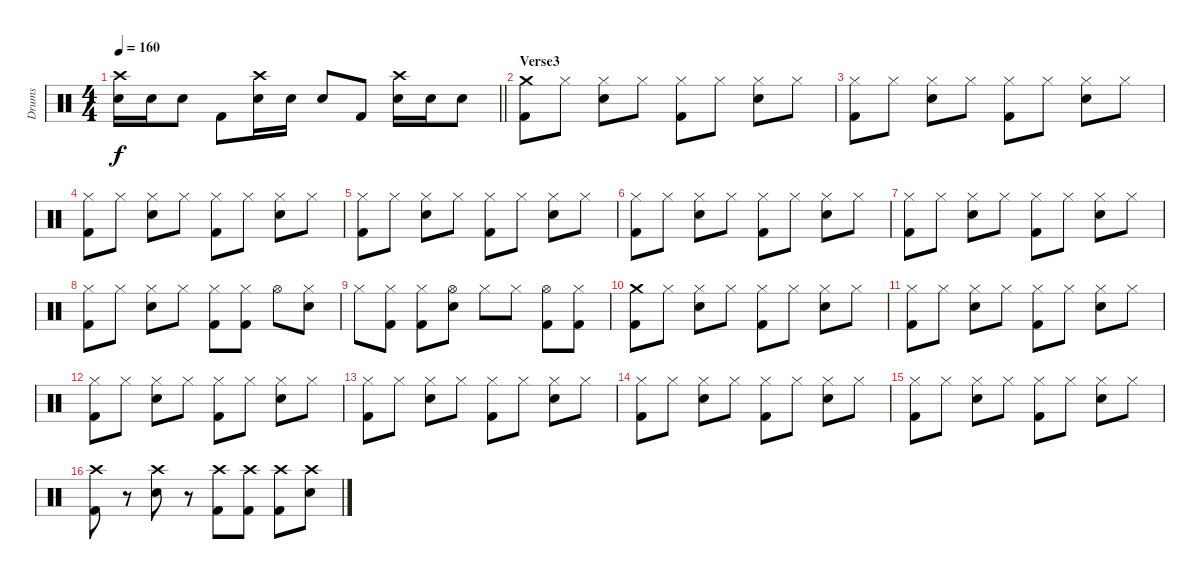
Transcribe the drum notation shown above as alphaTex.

\track ("Drums" "Drums") {instrument percussion}
\staff {score}
\articulation defaults
\ts (4 4)
\tempo 160
\clef neutral
\barLineRight lightlight
\ks c
("Crash high (hit)" "Electric Snare (hit)").16{dy f} "Electric Snare (hit)".16 "Electric Snare (hit)".8 "Kick (hit) 2".8 ("Crash high (hit)" "Electric Snare (hit)").16 "Electric Snare (hit)".16 "Electric Snare (hit)".8 "Kick (hit) 2".8 ("Crash high (hit)" "Electric Snare (hit)").16 "Electric Snare (hit)".16 "Electric Snare (hit)".8 |
\section ("" "Verse3")
("Crash medium (hit)" "Kick (hit) 2").8 "Hi-Hat (closed)".8 ("Hi-Hat (closed)" "Electric Snare (hit)").8 "Hi-Hat (closed)".8 ("Hi-Hat (closed)" "Kick (hit) 2").8 "Hi-Hat (closed)".8 ("Hi-Hat (closed)" "Electric Snare (hit)").8 "Hi-Hat (closed)".8 |
("Hi-Hat (closed)" "Kick (hit) 2").8 "Hi-Hat (closed)".8 ("Hi-Hat (closed)" "Electric Snare (hit)").8 "Hi-Hat (closed)".8 ("Hi-Hat (closed)" "Kick (hit) 2").8 "Hi-Hat (closed)".8 ("Hi-Hat (closed)" "Electric Snare (hit)").8 "Hi-Hat (closed)".8 |
("Hi-Hat (closed)" "Kick (hit) 2").8 "Hi-Hat (closed)".8 ("Hi-Hat (closed)" "Electric Snare (hit)").8 "Hi-Hat (closed)".8 ("Hi-Hat (closed)" "Kick (hit) 2").8 "Hi-Hat (closed)".8 ("Hi-Hat (closed)" "Electric Snare (hit)").8 "Hi-Hat (closed)".8 |
("Hi-Hat (closed)" "Kick (hit) 2").8 "Hi-Hat (closed)".8 ("Hi-Hat (closed)" "Electric Snare (hit)").8 "Hi-Hat (closed)".8 ("Hi-Hat (closed)" "Kick (hit) 2").8 "Hi-Hat (closed)".8 ("Hi-Hat (closed)" "Electric Snare (hit)").8 "Hi-Hat (closed)".8 |
("Hi-Hat (closed)" "Kick (hit) 2").8 "Hi-Hat (closed)".8 ("Hi-Hat (closed)" "Electric Snare (hit)").8 "Hi-Hat (closed)".8 ("Hi-Hat (closed)" "Kick (hit) 2").8 "Hi-Hat (closed)".8 ("Hi-Hat (closed)" "Electric Snare (hit)").8 "Hi-Hat (closed)".8 |
("Hi-Hat (closed)" "Kick (hit) 2").8 "Hi-Hat (closed)".8 ("Hi-Hat (closed)" "Electric Snare (hit)").8 "Hi-Hat (closed)".8 ("Hi-Hat (closed)" "Kick (hit) 2").8 "Hi-Hat (closed)".8 ("Hi-Hat (closed)" "Electric Snare (hit)").8 "Hi-Hat (closed)".8 |
("Hi-Hat (closed)" "Kick (hit) 2").8 "Hi-Hat (closed)".8 ("Hi-Hat (closed)" "Electric Snare (hit)").8 "Hi-Hat (closed)".8 ("Hi-Hat (closed)" "Kick (hit) 2").8 ("Hi-Hat (closed)" "Kick (hit) 2").8 "Hi-Hat (open)".8 ("Hi-Hat (closed)" "Electric Snare (hit)").8 |
"Hi-Hat (closed)".8 ("Hi-Hat (closed)" "Kick (hit) 2").8 ("Hi-Hat (closed)" "Kick (hit) 2").8 ("Hi-Hat (open)" "Electric Snare (hit)").8 "Hi-Hat (closed)".8 "Hi-Hat (closed)".8 ("Hi-Hat (open)" "Kick (hit) 2").8 ("Hi-Hat (closed)" "Kick (hit) 2").8 |
("Crash medium (hit)" "Kick (hit) 2").8 "Hi-Hat (closed)".8 ("Hi-Hat (closed)" "Electric Snare (hit)").8 "Hi-Hat (closed)".8 ("Hi-Hat (closed)" "Kick (hit) 2").8 "Hi-Hat (closed)".8 ("Hi-Hat (closed)" "Electric Snare (hit)").8 "Hi-Hat (closed)".8 |
("Hi-Hat (closed)" "Kick (hit) 2").8 "Hi-Hat (closed)".8 ("Hi-Hat (closed)" "Electric Snare (hit)").8 "Hi-Hat (closed)".8 ("Hi-Hat (closed)" "Kick (hit) 2").8 "Hi-Hat (closed)".8 ("Hi-Hat (closed)" "Electric Snare (hit)").8 "Hi-Hat (closed)".8 |
("Hi-Hat (closed)" "Kick (hit) 2").8 "Hi-Hat (closed)".8 ("Hi-Hat (closed)" "Electric Snare (hit)").8 "Hi-Hat (closed)".8 ("Hi-Hat (closed)" "Kick (hit) 2").8 "Hi-Hat (closed)".8 ("Hi-Hat (closed)" "Electric Snare (hit)").8 "Hi-Hat (closed)".8 |
("Hi-Hat (closed)" "Kick (hit) 2").8 "Hi-Hat (closed)".8 ("Hi-Hat (closed)" "Electric Snare (hit)").8 "Hi-Hat (closed)".8 ("Hi-Hat (closed)" "Kick (hit) 2").8 "Hi-Hat (closed)".8 ("Hi-Hat (closed)" "Electric Snare (hit)").8 "Hi-Hat (closed)".8 |
("Hi-Hat (closed)" "Kick (hit) 2").8 "Hi-Hat (closed)".8 ("Hi-Hat (closed)" "Electric Snare (hit)").8 "Hi-Hat (closed)".8 ("Hi-Hat (closed)" "Kick (hit) 2").8 "Hi-Hat (closed)".8 ("Hi-Hat (closed)" "Electric Snare (hit)").8 "Hi-Hat (closed)".8 |
("Hi-Hat (closed)" "Kick (hit) 2").8 "Hi-Hat (closed)".8 ("Hi-Hat (closed)" "Electric Snare (hit)").8 "Hi-Hat (closed)".8 ("Hi-Hat (closed)" "Kick (hit) 2").8 "Hi-Hat (closed)".8 ("Hi-Hat (closed)" "Electric Snare (hit)").8 "Hi-Hat (closed)".8 |
("Crash high (hit)" "Kick (hit) 2").8 r.8 ("Crash high (hit)" "Electric Snare (hit)").8 r.8 ("Crash high (hit)" "Kick (hit) 2").8 ("Crash high (hit)" "Kick (hit) 2").8 ("Crash high (hit)" "Kick (hit) 2").8 ("Crash high (hit)" "Electric Snare (hit)").8
